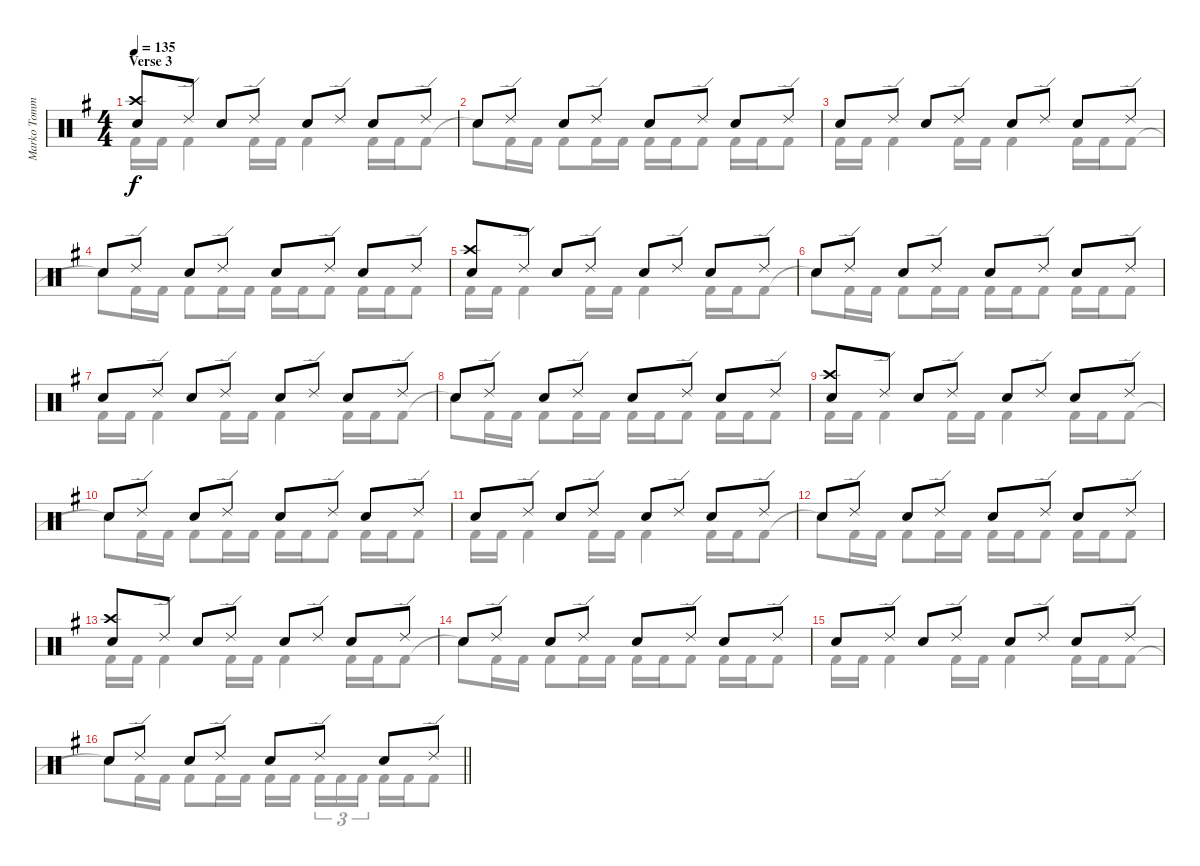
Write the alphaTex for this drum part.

\track ("Marko Tommila (drums)" "Marko Tomm") {instrument percussion}
\staff {score}
\articulation defaults
\voice
\ts (4 4)
\section ("" "Verse 3")
\tempo 135
\clef neutral
\ks eminor
("Crash high (hit)" "Electric Snare (hit)").8{dy f} "Ride (edge) 2".8 "Electric Snare (hit)".8 "Ride (edge) 2".8 "Electric Snare (hit)".8 "Ride (edge) 2".8 "Electric Snare (hit)".8 "Ride (edge) 2".8 |
"Electric Snare (hit)".8 "Ride (edge) 2".8 "Electric Snare (hit)".8 "Ride (edge) 2".8 "Electric Snare (hit)".8 "Ride (edge) 2".8 "Electric Snare (hit)".8 "Ride (edge) 2".8 |
"Electric Snare (hit)".8 "Ride (edge) 2".8 "Electric Snare (hit)".8 "Ride (edge) 2".8 "Electric Snare (hit)".8 "Ride (edge) 2".8 "Electric Snare (hit)".8 "Ride (edge) 2".8 |
"Electric Snare (hit)".8 "Ride (edge) 2".8 "Electric Snare (hit)".8 "Ride (edge) 2".8 "Electric Snare (hit)".8 "Ride (edge) 2".8 "Electric Snare (hit)".8 "Ride (edge) 2".8 |
("Crash high (hit)" "Electric Snare (hit)").8 "Ride (edge) 2".8 "Electric Snare (hit)".8 "Ride (edge) 2".8 "Electric Snare (hit)".8 "Ride (edge) 2".8 "Electric Snare (hit)".8 "Ride (edge) 2".8 |
"Electric Snare (hit)".8 "Ride (edge) 2".8 "Electric Snare (hit)".8 "Ride (edge) 2".8 "Electric Snare (hit)".8 "Ride (edge) 2".8 "Electric Snare (hit)".8 "Ride (edge) 2".8 |
"Electric Snare (hit)".8 "Ride (edge) 2".8 "Electric Snare (hit)".8 "Ride (edge) 2".8 "Electric Snare (hit)".8 "Ride (edge) 2".8 "Electric Snare (hit)".8 "Ride (edge) 2".8 |
"Electric Snare (hit)".8 "Ride (edge) 2".8 "Electric Snare (hit)".8 "Ride (edge) 2".8 "Electric Snare (hit)".8 "Ride (edge) 2".8 "Electric Snare (hit)".8 "Ride (edge) 2".8 |
("Crash high (hit)" "Electric Snare (hit)").8 "Ride (edge) 2".8 "Electric Snare (hit)".8 "Ride (edge) 2".8 "Electric Snare (hit)".8 "Ride (edge) 2".8 "Electric Snare (hit)".8 "Ride (edge) 2".8 |
"Electric Snare (hit)".8 "Ride (edge) 2".8 "Electric Snare (hit)".8 "Ride (edge) 2".8 "Electric Snare (hit)".8 "Ride (edge) 2".8 "Electric Snare (hit)".8 "Ride (edge) 2".8 |
"Electric Snare (hit)".8 "Ride (edge) 2".8 "Electric Snare (hit)".8 "Ride (edge) 2".8 "Electric Snare (hit)".8 "Ride (edge) 2".8 "Electric Snare (hit)".8 "Ride (edge) 2".8 |
"Electric Snare (hit)".8 "Ride (edge) 2".8 "Electric Snare (hit)".8 "Ride (edge) 2".8 "Electric Snare (hit)".8 "Ride (edge) 2".8 "Electric Snare (hit)".8 "Ride (edge) 2".8 |
("Crash high (hit)" "Electric Snare (hit)").8 "Ride (edge) 2".8 "Electric Snare (hit)".8 "Ride (edge) 2".8 "Electric Snare (hit)".8 "Ride (edge) 2".8 "Electric Snare (hit)".8 "Ride (edge) 2".8 |
"Electric Snare (hit)".8 "Ride (edge) 2".8 "Electric Snare (hit)".8 "Ride (edge) 2".8 "Electric Snare (hit)".8 "Ride (edge) 2".8 "Electric Snare (hit)".8 "Ride (edge) 2".8 |
"Electric Snare (hit)".8 "Ride (edge) 2".8 "Electric Snare (hit)".8 "Ride (edge) 2".8 "Electric Snare (hit)".8 "Ride (edge) 2".8 "Electric Snare (hit)".8 "Ride (edge) 2".8 |
\barLineRight lightlight "Electric Snare (hit)".8 "Ride (edge) 2".8 "Electric Snare (hit)".8 "Ride (edge) 2".8 "Electric Snare (hit)".8 "Ride (edge) 2".8 "Electric Snare (hit)".8 "Ride (edge) 2".8
\voice
\clef neutral
\ottava regular
\simile none
\ks eminor "Kick (hit) 2".16{dy f} "Kick (hit) 2".16 "Kick (hit) 2".4 "Kick (hit) 2".16 "Kick (hit) 2".16 "Kick (hit) 2".4 "Kick (hit) 2".16 "Kick (hit) 2".16 "Kick (hit) 2".8
|
"Snare (hit)"{t}.8 "Kick (hit) 2".16 "Kick (hit) 2".16 "Kick (hit) 2".8 "Kick (hit) 2".16 "Kick (hit) 2".16 "Kick (hit) 2".16 "Kick (hit) 2".16 "Kick (hit) 2".8 "Kick (hit) 2".16 "Kick (hit) 2".16 "Kick (hit) 2".8 |
"Kick (hit) 2".16 "Kick (hit) 2".16 "Kick (hit) 2".4 "Kick (hit) 2".16 "Kick (hit) 2".16 "Kick (hit) 2".4 "Kick (hit) 2".16 "Kick (hit) 2".16 "Kick (hit) 2".8 |
"Snare (hit)"{t}.8 "Kick (hit) 2".16 "Kick (hit) 2".16 "Kick (hit) 2".8 "Kick (hit) 2".16 "Kick (hit) 2".16 "Kick (hit) 2".16 "Kick (hit) 2".16 "Kick (hit) 2".8 "Kick (hit) 2".16 "Kick (hit) 2".16 "Kick (hit) 2".8 |
"Kick (hit) 2".16 "Kick (hit) 2".16 "Kick (hit) 2".4 "Kick (hit) 2".16 "Kick (hit) 2".16 "Kick (hit) 2".4 "Kick (hit) 2".16 "Kick (hit) 2".16 "Kick (hit) 2".8 |
"Snare (hit)"{t}.8 "Kick (hit) 2".16 "Kick (hit) 2".16 "Kick (hit) 2".8 "Kick (hit) 2".16 "Kick (hit) 2".16 "Kick (hit) 2".16 "Kick (hit) 2".16 "Kick (hit) 2".8 "Kick (hit) 2".16 "Kick (hit) 2".16 "Kick (hit) 2".8 |
"Kick (hit) 2".16 "Kick (hit) 2".16 "Kick (hit) 2".4 "Kick (hit) 2".16 "Kick (hit) 2".16 "Kick (hit) 2".4 "Kick (hit) 2".16 "Kick (hit) 2".16 "Kick (hit) 2".8 |
"Snare (hit)"{t}.8 "Kick (hit) 2".16 "Kick (hit) 2".16 "Kick (hit) 2".8 "Kick (hit) 2".16 "Kick (hit) 2".16 "Kick (hit) 2".16 "Kick (hit) 2".16 "Kick (hit) 2".8 "Kick (hit) 2".16 "Kick (hit) 2".16 "Kick (hit) 2".8 |
"Kick (hit) 2".16 "Kick (hit) 2".16 "Kick (hit) 2".4 "Kick (hit) 2".16 "Kick (hit) 2".16 "Kick (hit) 2".4 "Kick (hit) 2".16 "Kick (hit) 2".16 "Kick (hit) 2".8 |
"Snare (hit)"{t}.8 "Kick (hit) 2".16 "Kick (hit) 2".16 "Kick (hit) 2".8 "Kick (hit) 2".16 "Kick (hit) 2".16 "Kick (hit) 2".16 "Kick (hit) 2".16 "Kick (hit) 2".8 "Kick (hit) 2".16 "Kick (hit) 2".16 "Kick (hit) 2".8 |
"Kick (hit) 2".16 "Kick (hit) 2".16 "Kick (hit) 2".4 "Kick (hit) 2".16 "Kick (hit) 2".16 "Kick (hit) 2".4 "Kick (hit) 2".16 "Kick (hit) 2".16 "Kick (hit) 2".8 |
"Snare (hit)"{t}.8 "Kick (hit) 2".16 "Kick (hit) 2".16 "Kick (hit) 2".8 "Kick (hit) 2".16 "Kick (hit) 2".16 "Kick (hit) 2".16 "Kick (hit) 2".16 "Kick (hit) 2".8 "Kick (hit) 2".16 "Kick (hit) 2".16 "Kick (hit) 2".8 |
"Kick (hit) 2".16 "Kick (hit) 2".16 "Kick (hit) 2".4 "Kick (hit) 2".16 "Kick (hit) 2".16 "Kick (hit) 2".4 "Kick (hit) 2".16 "Kick (hit) 2".16 "Kick (hit) 2".8 |
"Snare (hit)"{t}.8 "Kick (hit) 2".16 "Kick (hit) 2".16 "Kick (hit) 2".8 "Kick (hit) 2".16 "Kick (hit) 2".16 "Kick (hit) 2".16 "Kick (hit) 2".16 "Kick (hit) 2".8 "Kick (hit) 2".16 "Kick (hit) 2".16 "Kick (hit) 2".8 |
"Kick (hit) 2".16 "Kick (hit) 2".16 "Kick (hit) 2".4 "Kick (hit) 2".16 "Kick (hit) 2".16 "Kick (hit) 2".4 "Kick (hit) 2".16 "Kick (hit) 2".16 "Kick (hit) 2".8 |
\barLineRight lightlight "Snare (hit)"{t}.8 "Kick (hit) 2".16 "Kick (hit) 2".16 "Kick (hit) 2".8 "Kick (hit) 2".16 "Kick (hit) 2".16 "Kick (hit) 2".16 "Kick (hit) 2".16{beam splitsecondary} "Kick (hit) 2".16{tu (3 2)} "Kick (hit) 2".16{tu (3 2)} "Kick (hit) 2".16{tu (3 2)} "Kick (hit) 2".16 "Kick (hit) 2".16 "Kick (hit) 2".8
